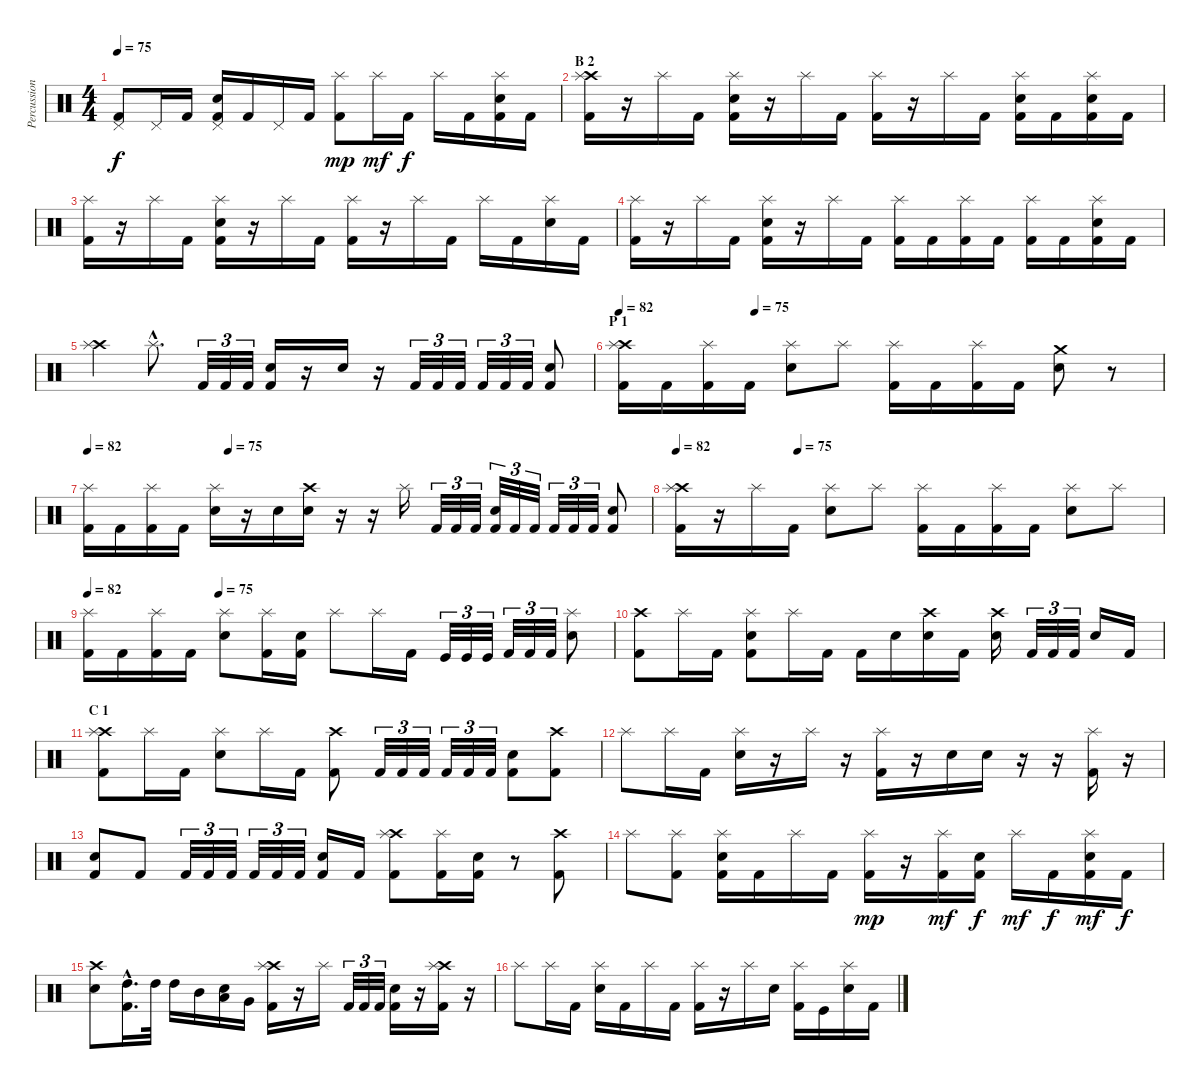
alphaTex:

\track ("Percussion" "Percussion") {instrument percussion}
\staff {score}
\articulation defaults
\ts (4 4)
\tempo 75
\clef neutral
\ks c
("Pedal Hi-Hat (hit)" "Kick (hit) 2").8{dy f} "Pedal Hi-Hat (hit)".16 "Kick (hit) 2".16 ("Pedal Hi-Hat (hit)" "Snare (hit) 2" "Kick (hit) 2").16 "Kick (hit) 2".16 "Pedal Hi-Hat (hit)".16 "Kick (hit) 2".16 ("Splash (hit)" "Kick (hit) 2").8{dy mp} "Splash (hit)".16{dy mf} "Kick (hit) 2".16{dy f} "Splash (hit)".16 "Kick (hit) 2".16 ("Splash (hit)" "Snare (hit) 2" "Kick (hit) 2").16 "Kick (hit) 2".16 |
\section ("" "B 2")
("Crash high (hit)" "Splash (hit)" "Kick (hit) 2").16 r.16 "Splash (hit)".16 "Kick (hit) 2".16 ("Splash (hit)" "Snare (hit) 2" "Kick (hit) 2").16 r.16 "Splash (hit)".16 "Kick (hit) 2".16 ("Splash (hit)" "Kick (hit) 2").16 r.16 "Splash (hit)".16 "Kick (hit) 2".16 ("Splash (hit)" "Snare (hit) 2" "Kick (hit) 2").16 "Kick (hit) 2".16 ("Splash (hit)" "Snare (hit) 2" "Kick (hit) 2").16 "Kick (hit) 2".16 |
("Splash (hit)" "Kick (hit) 2").16 r.16 "Splash (hit)".16 "Kick (hit) 2".16 ("Splash (hit)" "Snare (hit) 2" "Kick (hit) 2").16 r.16 "Splash (hit)".16 "Kick (hit) 2".16 ("Splash (hit)" "Kick (hit) 2").16 r.16 "Splash (hit)".16 "Kick (hit) 2".16 "Splash (hit)".16 "Kick (hit) 2".16 ("Splash (hit)" "Snare (hit) 2").16 "Kick (hit) 2".16 |
("Splash (hit)" "Kick (hit) 2").16 r.16 "Splash (hit)".16 "Kick (hit) 2".16 ("Splash (hit)" "Snare (hit) 2" "Kick (hit) 2").16 r.16 "Splash (hit)".16 "Kick (hit) 2".16 ("Splash (hit)" "Kick (hit) 2").16 "Kick (hit) 2".16 ("Splash (hit)" "Kick (hit) 2").16 "Kick (hit) 2".16 ("Splash (hit)" "Kick (hit) 2").16 "Kick (hit) 2".16 ("Splash (hit)" "Snare (hit) 2" "Kick (hit) 2").16 "Kick (hit) 2".16 |
("Crash high (hit)" "Splash (hit)").4 "Splash (hit)"{hac}.8{d} "Kick (hit) 2".32{tu (3 2)} "Kick (hit) 2".32{tu (3 2)} "Kick (hit) 2".32{tu (3 2)} ("Snare (hit) 2" "Kick (hit) 2").16 r.16 "Snare (hit) 2".16 r.16 "Kick (hit) 2".32{tu (3 2)} "Kick (hit) 2".32{tu (3 2)} "Kick (hit) 2".32{tu (3 2)} "Kick (hit) 2".32{tu (3 2)} "Kick (hit) 2".32{tu (3 2)} "Kick (hit) 2".32{tu (3 2)} ("Snare (hit) 2" "Kick (hit) 2").8 |
\section ("" "P 1")
\tempo 82
\tempo (75 0.25)
("Crash high (hit)" "Splash (hit)" "Kick (hit) 2").16 "Kick (hit) 2".16 ("Splash (hit)" "Kick (hit) 2").16 "Kick (hit) 2".16 ("Splash (hit)" "Snare (hit) 2").8 "Splash (hit)".8 ("Splash (hit)" "Kick (hit) 2").16 "Kick (hit) 2".16 ("Splash (hit)" "Kick (hit) 2").16 "Kick (hit) 2".16 ("Crash medium (hit)" "Snare (hit) 2").8 r.8 |
\tempo 82
\tempo (75 0.25)
("Splash (hit)" "Kick (hit) 2").16 "Kick (hit) 2".16 ("Splash (hit)" "Kick (hit) 2").16 "Kick (hit) 2".16 ("Splash (hit)" "Snare (hit) 2").16 r.16 "Snare (hit) 2".16 ("Crash high (hit)" "Snare (hit) 2").16 r.16 r.16 "Splash (hit)".16 "Kick (hit) 2".32{tu (3 2)} "Kick (hit) 2".32{tu (3 2)} "Kick (hit) 2".32{tu (3 2)} ("Snare (hit) 2" "Kick (hit) 2").32{tu (3 2)} "Kick (hit) 2".32{tu (3 2)} "Kick (hit) 2".32{tu (3 2)} "Kick (hit) 2".32{tu (3 2)} "Kick (hit) 2".32{tu (3 2)} "Kick (hit) 2".32{tu (3 2)} ("Snare (hit) 2" "Kick (hit) 2").8 |
\tempo 82
\tempo (75 0.25)
("Crash high (hit)" "Splash (hit)" "Kick (hit) 2").16 r.16 "Splash (hit)".16 "Kick (hit) 2".16 ("Splash (hit)" "Snare (hit) 2").8 "Splash (hit)".8 ("Splash (hit)" "Kick (hit) 2").16 "Kick (hit) 2".16 ("Splash (hit)" "Kick (hit) 2").16 "Kick (hit) 2".16 ("Splash (hit)" "Snare (hit) 2").8 "Splash (hit)".8 |
\tempo 82
\tempo (75 0.25)
("Splash (hit)" "Kick (hit) 2").16 "Kick (hit) 2".16 ("Splash (hit)" "Kick (hit) 2").16 "Kick (hit) 2".16 ("Splash (hit)" "Snare (hit) 2").8 ("Splash (hit)" "Kick (hit) 2").16 ("Snare (hit) 2" "Kick (hit) 2").16 "Splash (hit)".8 "Splash (hit)".16 "Kick (hit) 2".16 "Kick (hit)".32{tu (3 2)} "Kick (hit)".32{tu (3 2)} "Kick (hit)".32{tu (3 2)} "Kick (hit) 2".32{tu (3 2)} "Kick (hit) 2".32{tu (3 2)} "Kick (hit) 2".32{tu (3 2)} ("Splash (hit)" "Snare (hit) 2").8 |
("Crash high (hit)" "Kick (hit) 2").8 "Splash (hit)".16 "Kick (hit) 2".16 ("Splash (hit)" "Snare (hit) 2" "Kick (hit) 2").8 "Splash (hit)".16 "Kick (hit) 2".16 "Kick (hit) 2".16 "Snare (hit) 2".16 ("Crash high (hit)" "Snare (hit) 2").16 "Kick (hit) 2".16 ("Crash high (hit)" "Snare (hit) 2").16 "Kick (hit) 2".32{tu (3 2)} "Kick (hit) 2".32{tu (3 2)} "Kick (hit) 2".32{tu (3 2)} "Snare (hit) 2".16 "Kick (hit) 2".16 |
\section ("" "C 1")
("Crash high (hit)" "Splash (hit)" "Kick (hit) 2").8 "Splash (hit)".16 "Kick (hit) 2".16 ("Splash (hit)" "Snare (hit) 2").8 "Splash (hit)".16 "Kick (hit) 2".16 ("Crash high (hit)" "Kick (hit) 2").8 "Kick (hit) 2".32{tu (3 2)} "Kick (hit) 2".32{tu (3 2)} "Kick (hit) 2".32{tu (3 2)} "Kick (hit) 2".32{tu (3 2)} "Kick (hit) 2".32{tu (3 2)} "Kick (hit) 2".32{tu (3 2)} ("Snare (hit) 2" "Kick (hit) 2").8 ("Crash high (hit)" "Kick (hit) 2").8 |
"Splash (hit)".8 "Splash (hit)".16 "Kick (hit) 2".16 ("Splash (hit)" "Snare (hit) 2").16 r.16 "Splash (hit)".16 r.16 ("Splash (hit)" "Kick (hit) 2").16 r.16 "Snare (hit) 2".16 "Snare (hit) 2".16 r.16 r.16 ("Splash (hit)" "Kick (hit) 2").16 r.16 |
("Snare (hit) 2" "Kick (hit) 2").8 "Kick (hit) 2".8 "Kick (hit) 2".32{tu (3 2)} "Kick (hit) 2".32{tu (3 2)} "Kick (hit) 2".32{tu (3 2)} "Kick (hit) 2".32{tu (3 2)} "Kick (hit) 2".32{tu (3 2)} "Kick (hit) 2".32{tu (3 2)} ("Snare (hit) 2" "Kick (hit) 2").16 "Kick (hit) 2".16 ("Crash high (hit)" "Splash (hit)" "Kick (hit) 2").8 ("Splash (hit)" "Kick (hit) 2").16 ("Snare (hit) 2" "Kick (hit) 2").16 r.8 ("Crash high (hit)" "Kick (hit) 2").8 |
"Splash (hit)".8 ("Splash (hit)" "Kick (hit) 2").8 ("Splash (hit)" "Snare (hit) 2" "Kick (hit) 2").16 "Kick (hit) 2".16 "Splash (hit)".16 "Kick (hit) 2".16 ("Splash (hit)" "Kick (hit) 2").16{dy mp} r.16 ("Splash (hit)" "Kick (hit) 2").16{dy mf} ("Snare (hit) 2" "Kick (hit) 2").16{dy f} "Splash (hit)".16{dy mf} "Kick (hit) 2".16{dy f} ("Splash (hit)" "Snare (hit) 2" "Kick (hit) 2").16{dy mf} "Kick (hit) 2".16{dy f} |
("Crash high (hit)" "Snare (hit) 2").8 ("High Tom (hit)"{hac} "Kick (hit) 2"{hac}).16{d} "High Tom (hit)".32 "High Tom (hit)".16 "Mid Tom (hit)".16 ("Snare (hit) 2" "Low Tom (hit)").16 "Very Low Tom (hit)".16 ("Crash high (hit)" "Splash (hit)" "Kick (hit) 2").16 r.16 "Splash (hit)".16 "Kick (hit) 2".32{tu (3 2)} "Kick (hit) 2".32{tu (3 2)} "Kick (hit) 2".32{tu (3 2)} ("Snare (hit) 2" "Kick (hit) 2").16 r.16 ("Crash high (hit)" "Splash (hit)" "Kick (hit) 2").16 r.16 |
"Splash (hit)".8 "Splash (hit)".16 "Kick (hit) 2".16 ("Splash (hit)" "Snare (hit) 2").16 "Kick (hit) 2".16 "Splash (hit)".16 "Kick (hit) 2".16 ("Splash (hit)" "Kick (hit) 2").16 r.16 "Splash (hit)".16 "Snare (hit) 2".16 ("Splash (hit)" "Kick (hit) 2").16 "Kick (hit)".16 ("Splash (hit)" "Snare (hit) 2").16 "Kick (hit) 2".16
